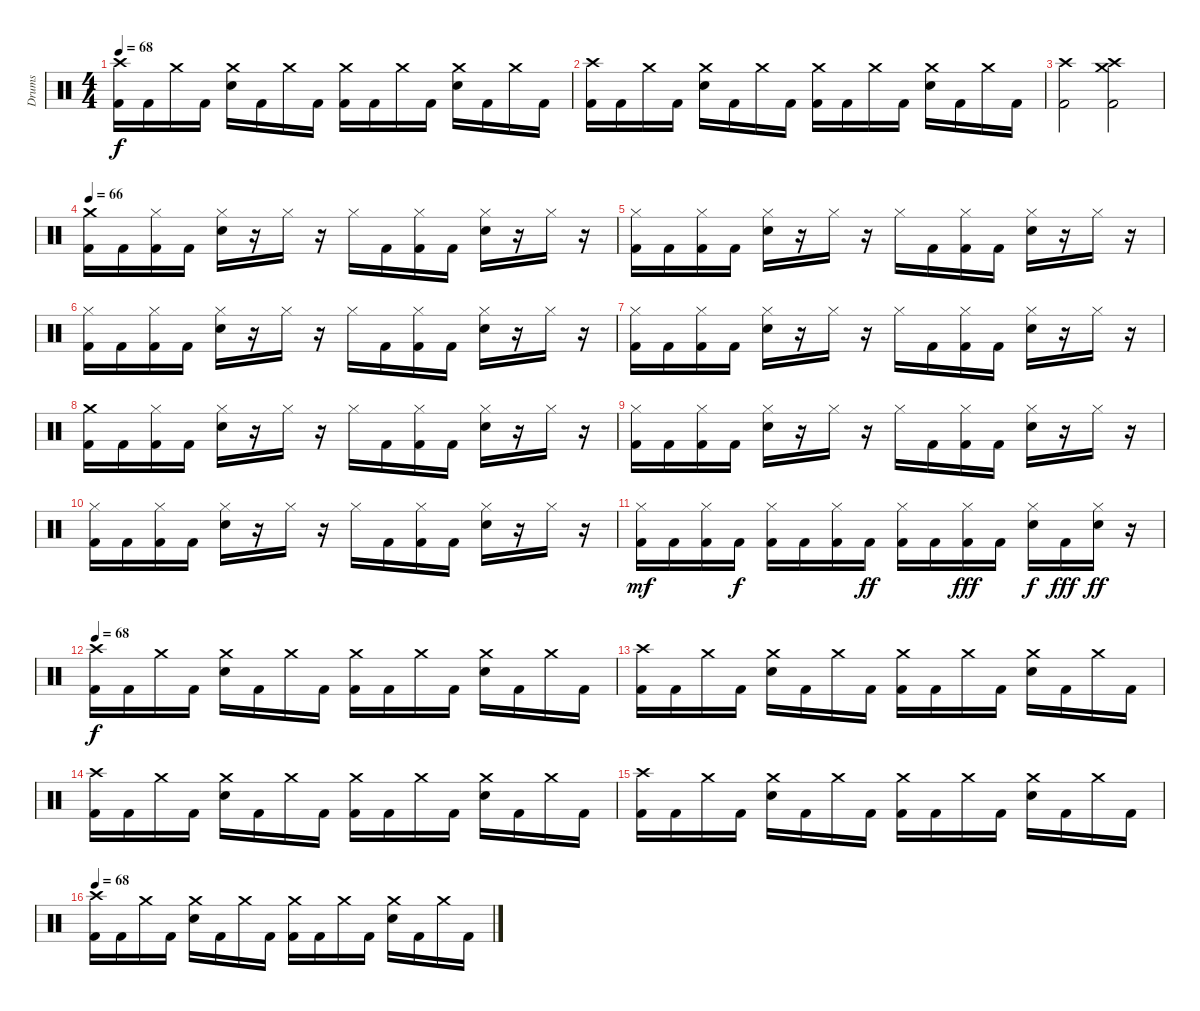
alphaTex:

\track ("Drums" "Drums") {instrument percussion}
\staff {score}
\articulation defaults
\ts (4 4)
\tempo 68
\clef neutral
\ks c
("Crash high (hit)" "Kick (hit) 2").16{dy f} "Kick (hit) 2".16 "Crash medium (hit)".16 "Kick (hit) 2".16 ("Crash medium (hit)" "Electric Snare (hit)").16 "Kick (hit) 2".16 "Crash medium (hit)".16 "Kick (hit) 2".16 ("Crash medium (hit)" "Kick (hit) 2").16 "Kick (hit) 2".16 "Crash medium (hit)".16 "Kick (hit) 2".16 ("Crash medium (hit)" "Electric Snare (hit)").16 "Kick (hit) 2".16 "Crash medium (hit)".16 "Kick (hit) 2".16 |
("Crash high (hit)" "Kick (hit) 2").16 "Kick (hit) 2".16 "Crash medium (hit)".16 "Kick (hit) 2".16 ("Crash medium (hit)" "Electric Snare (hit)").16 "Kick (hit) 2".16 "Crash medium (hit)".16 "Kick (hit) 2".16 ("Crash medium (hit)" "Kick (hit) 2").16 "Kick (hit) 2".16 "Crash medium (hit)".16 "Kick (hit) 2".16 ("Crash medium (hit)" "Electric Snare (hit)").16 "Kick (hit) 2".16 "Crash medium (hit)".16 "Kick (hit) 2".16 |
("Crash high (hit)" "Kick (hit) 2").2 ("Crash high (hit)" "Crash medium (hit)" "Kick (hit) 2").2 |
\tempo 66
("Crash medium (hit)" "Kick (hit) 2").16 "Kick (hit) 2".16 ("Hi-Hat (closed)" "Kick (hit) 2").16 "Kick (hit) 2".16 ("Hi-Hat (closed)" "Electric Snare (hit)").16 r.16 "Hi-Hat (closed)".16 r.16 "Hi-Hat (closed)".16 "Kick (hit) 2".16 ("Hi-Hat (closed)" "Kick (hit) 2").16 "Kick (hit) 2".16 ("Hi-Hat (closed)" "Electric Snare (hit)").16 r.16 "Hi-Hat (closed)".16 r.16 |
("Hi-Hat (closed)" "Kick (hit) 2").16 "Kick (hit) 2".16 ("Hi-Hat (closed)" "Kick (hit) 2").16 "Kick (hit) 2".16 ("Hi-Hat (closed)" "Electric Snare (hit)").16 r.16 "Hi-Hat (closed)".16 r.16 "Hi-Hat (closed)".16 "Kick (hit) 2".16 ("Hi-Hat (closed)" "Kick (hit) 2").16 "Kick (hit) 2".16 ("Hi-Hat (closed)" "Electric Snare (hit)").16 r.16 "Hi-Hat (closed)".16 r.16 |
("Hi-Hat (closed)" "Kick (hit) 2").16 "Kick (hit) 2".16 ("Hi-Hat (closed)" "Kick (hit) 2").16 "Kick (hit) 2".16 ("Hi-Hat (closed)" "Electric Snare (hit)").16 r.16 "Hi-Hat (closed)".16 r.16 "Hi-Hat (closed)".16 "Kick (hit) 2".16 ("Hi-Hat (closed)" "Kick (hit) 2").16 "Kick (hit) 2".16 ("Hi-Hat (closed)" "Electric Snare (hit)").16 r.16 "Hi-Hat (closed)".16 r.16 |
("Hi-Hat (closed)" "Kick (hit) 2").16 "Kick (hit) 2".16 ("Hi-Hat (closed)" "Kick (hit) 2").16 "Kick (hit) 2".16 ("Hi-Hat (closed)" "Electric Snare (hit)").16 r.16 "Hi-Hat (closed)".16 r.16 "Hi-Hat (closed)".16 "Kick (hit) 2".16 ("Hi-Hat (closed)" "Kick (hit) 2").16 "Kick (hit) 2".16 ("Hi-Hat (closed)" "Electric Snare (hit)").16 r.16 "Hi-Hat (closed)".16 r.16 |
("Crash medium (hit)" "Kick (hit) 2").16 "Kick (hit) 2".16 ("Hi-Hat (closed)" "Kick (hit) 2").16 "Kick (hit) 2".16 ("Hi-Hat (closed)" "Electric Snare (hit)").16 r.16 "Hi-Hat (closed)".16 r.16 "Hi-Hat (closed)".16 "Kick (hit) 2".16 ("Hi-Hat (closed)" "Kick (hit) 2").16 "Kick (hit) 2".16 ("Hi-Hat (closed)" "Electric Snare (hit)").16 r.16 "Hi-Hat (closed)".16 r.16 |
("Hi-Hat (closed)" "Kick (hit) 2").16 "Kick (hit) 2".16 ("Hi-Hat (closed)" "Kick (hit) 2").16 "Kick (hit) 2".16 ("Hi-Hat (closed)" "Electric Snare (hit)").16 r.16 "Hi-Hat (closed)".16 r.16 "Hi-Hat (closed)".16 "Kick (hit) 2".16 ("Hi-Hat (closed)" "Kick (hit) 2").16 "Kick (hit) 2".16 ("Hi-Hat (closed)" "Electric Snare (hit)").16 r.16 "Hi-Hat (closed)".16 r.16 |
("Hi-Hat (closed)" "Kick (hit) 2").16 "Kick (hit) 2".16 ("Hi-Hat (closed)" "Kick (hit) 2").16 "Kick (hit) 2".16 ("Hi-Hat (closed)" "Electric Snare (hit)").16 r.16 "Hi-Hat (closed)".16 r.16 "Hi-Hat (closed)".16 "Kick (hit) 2".16 ("Hi-Hat (closed)" "Kick (hit) 2").16 "Kick (hit) 2".16 ("Hi-Hat (closed)" "Electric Snare (hit)").16 r.16 "Hi-Hat (closed)".16 r.16 |
("Hi-Hat (closed)" "Kick (hit) 2").16{dy mf} "Kick (hit) 2".16 ("Hi-Hat (closed)" "Kick (hit) 2").16 "Kick (hit) 2".16{dy f} ("Hi-Hat (closed)" "Kick (hit) 2").16 "Kick (hit) 2".16 ("Hi-Hat (closed)" "Kick (hit) 2").16 "Kick (hit) 2".16{dy ff} ("Hi-Hat (closed)" "Kick (hit) 2").16 "Kick (hit) 2".16 ("Hi-Hat (closed)" "Kick (hit) 2").16{dy fff} "Kick (hit) 2".16 ("Hi-Hat (closed)" "Electric Snare (hit)").16{dy f} "Kick (hit) 2".16{dy fff} ("Hi-Hat (closed)" "Electric Snare (hit)").16{dy ff} r.16 |
\tempo 68
("Crash high (hit)" "Kick (hit) 2").16{dy f} "Kick (hit) 2".16 "Crash medium (hit)".16 "Kick (hit) 2".16 ("Crash medium (hit)" "Electric Snare (hit)").16 "Kick (hit) 2".16 "Crash medium (hit)".16 "Kick (hit) 2".16 ("Crash medium (hit)" "Kick (hit) 2").16 "Kick (hit) 2".16 "Crash medium (hit)".16 "Kick (hit) 2".16 ("Crash medium (hit)" "Electric Snare (hit)").16 "Kick (hit) 2".16 "Crash medium (hit)".16 "Kick (hit) 2".16 |
("Crash high (hit)" "Kick (hit) 2").16 "Kick (hit) 2".16 "Crash medium (hit)".16 "Kick (hit) 2".16 ("Crash medium (hit)" "Electric Snare (hit)").16 "Kick (hit) 2".16 "Crash medium (hit)".16 "Kick (hit) 2".16 ("Crash medium (hit)" "Kick (hit) 2").16 "Kick (hit) 2".16 "Crash medium (hit)".16 "Kick (hit) 2".16 ("Crash medium (hit)" "Electric Snare (hit)").16 "Kick (hit) 2".16 "Crash medium (hit)".16 "Kick (hit) 2".16 |
("Crash high (hit)" "Kick (hit) 2").16 "Kick (hit) 2".16 "Crash medium (hit)".16 "Kick (hit) 2".16 ("Crash medium (hit)" "Electric Snare (hit)").16 "Kick (hit) 2".16 "Crash medium (hit)".16 "Kick (hit) 2".16 ("Crash medium (hit)" "Kick (hit) 2").16 "Kick (hit) 2".16 "Crash medium (hit)".16 "Kick (hit) 2".16 ("Crash medium (hit)" "Electric Snare (hit)").16 "Kick (hit) 2".16 "Crash medium (hit)".16 "Kick (hit) 2".16 |
("Crash high (hit)" "Kick (hit) 2").16 "Kick (hit) 2".16 "Crash medium (hit)".16 "Kick (hit) 2".16 ("Crash medium (hit)" "Electric Snare (hit)").16 "Kick (hit) 2".16 "Crash medium (hit)".16 "Kick (hit) 2".16 ("Crash medium (hit)" "Kick (hit) 2").16 "Kick (hit) 2".16 "Crash medium (hit)".16 "Kick (hit) 2".16 ("Crash medium (hit)" "Electric Snare (hit)").16 "Kick (hit) 2".16 "Crash medium (hit)".16 "Kick (hit) 2".16 |
\tempo 68
("Crash high (hit)" "Kick (hit) 2").16 "Kick (hit) 2".16 "Crash medium (hit)".16 "Kick (hit) 2".16 ("Crash medium (hit)" "Electric Snare (hit)").16 "Kick (hit) 2".16 "Crash medium (hit)".16 "Kick (hit) 2".16 ("Crash medium (hit)" "Kick (hit) 2").16 "Kick (hit) 2".16 "Crash medium (hit)".16 "Kick (hit) 2".16 ("Crash medium (hit)" "Electric Snare (hit)").16 "Kick (hit) 2".16 "Crash medium (hit)".16 "Kick (hit) 2".16
